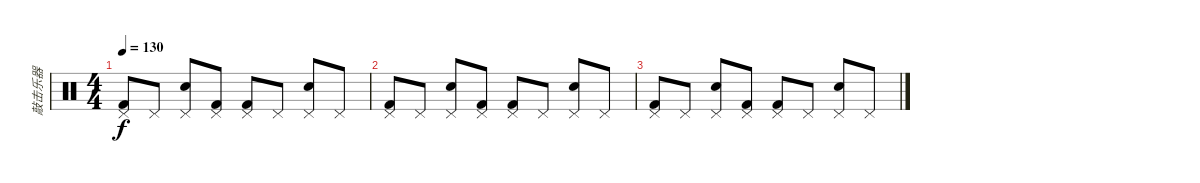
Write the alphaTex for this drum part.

\track ("敲击乐器" "敲击乐器") {instrument percussion}
\staff {score}
\articulation defaults
\ts (4 4)
\tempo 130
\clef neutral
\ks c
("Pedal Hi-Hat (hit)" "Kick (hit) 2").8{dy f} "Pedal Hi-Hat (hit)".8 ("Pedal Hi-Hat (hit)" "Electric Snare (hit)").8 ("Pedal Hi-Hat (hit)" "Kick (hit) 2").8 ("Pedal Hi-Hat (hit)" "Kick (hit) 2").8 "Pedal Hi-Hat (hit)".8 ("Pedal Hi-Hat (hit)" "Electric Snare (hit)").8 "Pedal Hi-Hat (hit)".8 |
("Pedal Hi-Hat (hit)" "Kick (hit) 2").8 "Pedal Hi-Hat (hit)".8 ("Pedal Hi-Hat (hit)" "Electric Snare (hit)").8 ("Pedal Hi-Hat (hit)" "Kick (hit) 2").8 ("Pedal Hi-Hat (hit)" "Kick (hit) 2").8 "Pedal Hi-Hat (hit)".8 ("Pedal Hi-Hat (hit)" "Electric Snare (hit)").8 "Pedal Hi-Hat (hit)".8 |
("Pedal Hi-Hat (hit)" "Kick (hit) 2").8 "Pedal Hi-Hat (hit)".8 ("Pedal Hi-Hat (hit)" "Electric Snare (hit)").8 ("Pedal Hi-Hat (hit)" "Kick (hit) 2").8 ("Pedal Hi-Hat (hit)" "Kick (hit) 2").8 "Pedal Hi-Hat (hit)".8 ("Pedal Hi-Hat (hit)" "Electric Snare (hit)").8 "Pedal Hi-Hat (hit)".8
